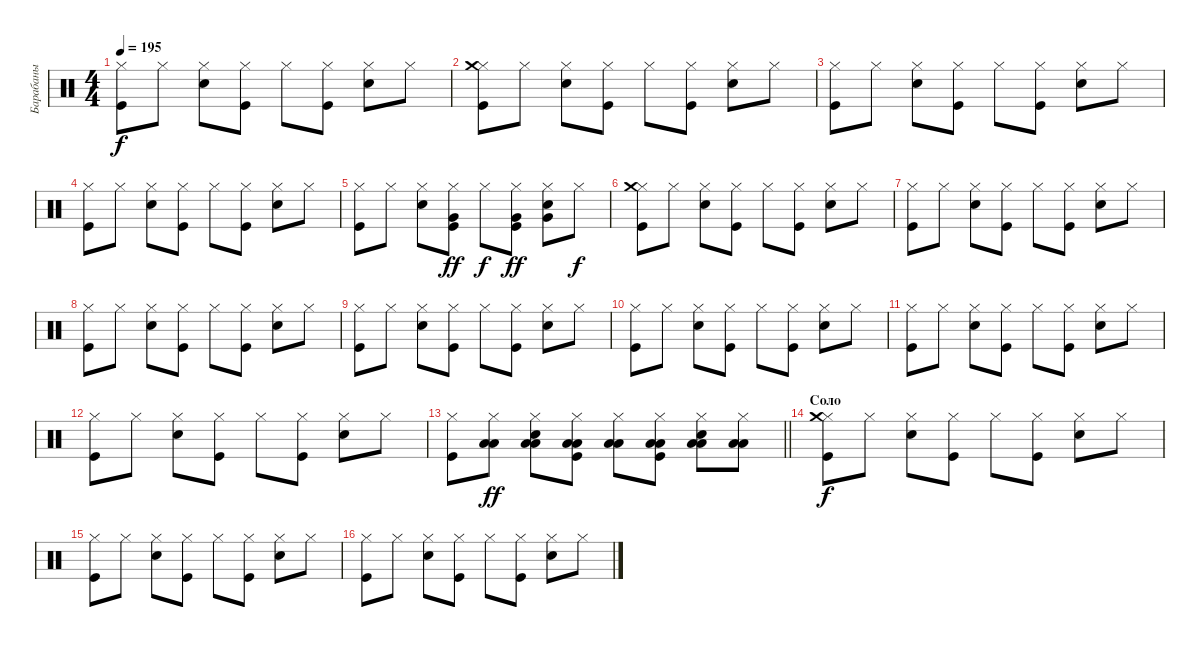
\track ("Барабаны" "Барабаны") {instrument percussion}
\staff {score}
\articulation defaults
\ts (4 4)
\tempo 195
\clef neutral
\ks c
("Kick (hit)" "Hi-Hat (closed)").8{dy f} "Hi-Hat (closed)".8 ("Snare (hit) 2" "Hi-Hat (closed)").8 ("Kick (hit)" "Hi-Hat (closed)").8 "Hi-Hat (closed)".8 ("Kick (hit)" "Hi-Hat (closed)").8 ("Snare (hit) 2" "Hi-Hat (closed)").8 "Hi-Hat (closed)".8 |
("Kick (hit)" "Hi-Hat (closed)" "Crash medium (hit)").8 "Hi-Hat (closed)".8 ("Snare (hit) 2" "Hi-Hat (closed)").8 ("Kick (hit)" "Hi-Hat (closed)").8 "Hi-Hat (closed)".8 ("Kick (hit)" "Hi-Hat (closed)").8 ("Snare (hit) 2" "Hi-Hat (closed)").8 "Hi-Hat (closed)".8 |
("Kick (hit)" "Hi-Hat (closed)").8 "Hi-Hat (closed)".8 ("Snare (hit) 2" "Hi-Hat (closed)").8 ("Kick (hit)" "Hi-Hat (closed)").8 "Hi-Hat (closed)".8 ("Kick (hit)" "Hi-Hat (closed)").8 ("Snare (hit) 2" "Hi-Hat (closed)").8 "Hi-Hat (closed)".8 |
("Kick (hit)" "Hi-Hat (closed)").8 "Hi-Hat (closed)".8 ("Snare (hit) 2" "Hi-Hat (closed)").8 ("Kick (hit)" "Hi-Hat (closed)").8 "Hi-Hat (closed)".8 ("Kick (hit)" "Hi-Hat (closed)").8 ("Snare (hit) 2" "Hi-Hat (closed)").8 "Hi-Hat (closed)".8 |
("Kick (hit)" "Hi-Hat (closed)").8 "Hi-Hat (closed)".8 ("Snare (hit) 2" "Hi-Hat (closed)").8 ("Kick (hit)" "Hi-Hat (closed)" "Very Low Tom (hit)").8{dy ff} "Hi-Hat (closed)".8{dy f} ("Kick (hit)" "Hi-Hat (closed)" "Very Low Tom (hit)").8{dy ff} ("Snare (hit) 2" "Hi-Hat (closed)" "Very Low Tom (hit)").8 "Hi-Hat (closed)".8{dy f} |
("Kick (hit)" "Hi-Hat (closed)" "Crash medium (hit)").8 "Hi-Hat (closed)".8 ("Snare (hit) 2" "Hi-Hat (closed)").8 ("Kick (hit)" "Hi-Hat (closed)").8 "Hi-Hat (closed)".8 ("Kick (hit)" "Hi-Hat (closed)").8 ("Snare (hit) 2" "Hi-Hat (closed)").8 "Hi-Hat (closed)".8 |
("Kick (hit)" "Hi-Hat (closed)").8 "Hi-Hat (closed)".8 ("Snare (hit) 2" "Hi-Hat (closed)").8 ("Kick (hit)" "Hi-Hat (closed)").8 "Hi-Hat (closed)".8 ("Kick (hit)" "Hi-Hat (closed)").8 ("Snare (hit) 2" "Hi-Hat (closed)").8 "Hi-Hat (closed)".8 |
("Kick (hit)" "Hi-Hat (closed)").8 "Hi-Hat (closed)".8 ("Snare (hit) 2" "Hi-Hat (closed)").8 ("Kick (hit)" "Hi-Hat (closed)").8 "Hi-Hat (closed)".8 ("Kick (hit)" "Hi-Hat (closed)").8 ("Snare (hit) 2" "Hi-Hat (closed)").8 "Hi-Hat (closed)".8 |
("Kick (hit)" "Hi-Hat (closed)").8 "Hi-Hat (closed)".8 ("Snare (hit) 2" "Hi-Hat (closed)").8 ("Kick (hit)" "Hi-Hat (closed)").8 "Hi-Hat (closed)".8 ("Kick (hit)" "Hi-Hat (closed)").8 ("Snare (hit) 2" "Hi-Hat (closed)").8 "Hi-Hat (closed)".8 |
("Kick (hit)" "Hi-Hat (closed)").8 "Hi-Hat (closed)".8 ("Snare (hit) 2" "Hi-Hat (closed)").8 ("Kick (hit)" "Hi-Hat (closed)").8 "Hi-Hat (closed)".8 ("Kick (hit)" "Hi-Hat (closed)").8 ("Snare (hit) 2" "Hi-Hat (closed)").8 "Hi-Hat (closed)".8 |
("Kick (hit)" "Hi-Hat (closed)").8 "Hi-Hat (closed)".8 ("Snare (hit) 2" "Hi-Hat (closed)").8 ("Kick (hit)" "Hi-Hat (closed)").8 "Hi-Hat (closed)".8 ("Kick (hit)" "Hi-Hat (closed)").8 ("Snare (hit) 2" "Hi-Hat (closed)").8 "Hi-Hat (closed)".8 |
("Kick (hit)" "Hi-Hat (closed)").8 "Hi-Hat (closed)".8 ("Snare (hit) 2" "Hi-Hat (closed)").8 ("Kick (hit)" "Hi-Hat (closed)").8 "Hi-Hat (closed)".8 ("Kick (hit)" "Hi-Hat (closed)").8 ("Snare (hit) 2" "Hi-Hat (closed)").8 "Hi-Hat (closed)".8 |
\barLineRight lightlight
("Kick (hit)" "Hi-Hat (closed)").8 ("Hi-Hat (closed)" "Low Tom (hit)" "Low Tom (hit)").8{dy ff} ("Snare (hit) 2" "Hi-Hat (closed)" "Low Tom (hit)" "Low Tom (hit)").8 ("Kick (hit)" "Hi-Hat (closed)" "Low Tom (hit)" "Low Tom (hit)").8 ("Hi-Hat (closed)" "Low Tom (hit)" "Low Tom (hit)").8 ("Kick (hit)" "Hi-Hat (closed)" "Low Tom (hit)" "Low Tom (hit)").8 ("Snare (hit) 2" "Hi-Hat (closed)" "Low Tom (hit)" "Low Tom (hit)").8 ("Hi-Hat (closed)" "Low Tom (hit)" "Low Tom (hit)").8 |
\section ("" "Соло")
("Kick (hit)" "Hi-Hat (closed)" "Crash medium (hit)").8{dy f} "Hi-Hat (closed)".8 ("Snare (hit) 2" "Hi-Hat (closed)").8 ("Kick (hit)" "Hi-Hat (closed)").8 "Hi-Hat (closed)".8 ("Kick (hit)" "Hi-Hat (closed)").8 ("Snare (hit) 2" "Hi-Hat (closed)").8 "Hi-Hat (closed)".8 |
("Kick (hit)" "Hi-Hat (closed)").8 "Hi-Hat (closed)".8 ("Snare (hit) 2" "Hi-Hat (closed)").8 ("Kick (hit)" "Hi-Hat (closed)").8 "Hi-Hat (closed)".8 ("Kick (hit)" "Hi-Hat (closed)").8 ("Snare (hit) 2" "Hi-Hat (closed)").8 "Hi-Hat (closed)".8 |
("Kick (hit)" "Hi-Hat (closed)").8 "Hi-Hat (closed)".8 ("Snare (hit) 2" "Hi-Hat (closed)").8 ("Kick (hit)" "Hi-Hat (closed)").8 "Hi-Hat (closed)".8 ("Kick (hit)" "Hi-Hat (closed)").8 ("Snare (hit) 2" "Hi-Hat (closed)").8 "Hi-Hat (closed)".8
